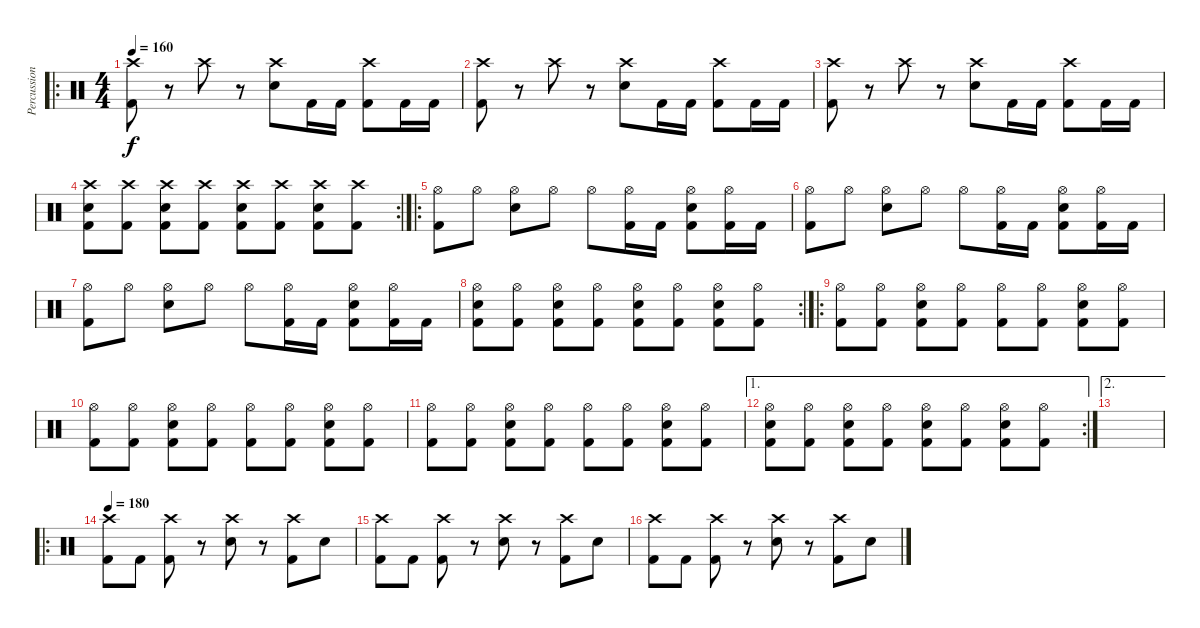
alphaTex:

\track ("Percussion" "Percussion") {instrument percussion}
\staff {score}
\articulation defaults
\ro
\ts (4 4)
\tempo 160
\clef neutral
\ks c
("Crash high (hit)" "Kick (hit) 2").8{dy f} r.8 "Crash high (hit)".8 r.8 ("Crash high (hit)" "Snare (hit) 2").8 "Kick (hit) 2".16 "Kick (hit) 2".16 ("Crash high (hit)" "Kick (hit) 2").8 "Kick (hit) 2".16 "Kick (hit) 2".16 |
("Crash high (hit)" "Kick (hit) 2").8 r.8 "Crash high (hit)".8 r.8 ("Crash high (hit)" "Snare (hit) 2").8 "Kick (hit) 2".16 "Kick (hit) 2".16 ("Crash high (hit)" "Kick (hit) 2").8 "Kick (hit) 2".16 "Kick (hit) 2".16 |
("Crash high (hit)" "Kick (hit) 2").8 r.8 "Crash high (hit)".8 r.8 ("Crash high (hit)" "Snare (hit) 2").8 "Kick (hit) 2".16 "Kick (hit) 2".16 ("Crash high (hit)" "Kick (hit) 2").8 "Kick (hit) 2".16 "Kick (hit) 2".16 |
\rc 2
("Crash high (hit)" "Snare (hit) 2" "Kick (hit) 2").8 ("Crash high (hit)" "Kick (hit) 2").8 ("Crash high (hit)" "Snare (hit) 2" "Kick (hit) 2").8 ("Crash high (hit)" "Kick (hit) 2").8 ("Crash high (hit)" "Snare (hit) 2" "Kick (hit) 2").8 ("Crash high (hit)" "Kick (hit) 2").8 ("Crash high (hit)" "Snare (hit) 2" "Kick (hit) 2").8 ("Crash high (hit)" "Kick (hit) 2").8 |
\ro
("Hi-Hat (open)" "Kick (hit) 2").8 "Hi-Hat (open)".8 ("Hi-Hat (open)" "Snare (hit) 2").8 "Hi-Hat (open)".8 "Hi-Hat (open)".8 ("Hi-Hat (open)" "Kick (hit) 2").16 "Kick (hit) 2".16 ("Hi-Hat (open)" "Snare (hit) 2" "Kick (hit) 2").8 ("Hi-Hat (open)" "Kick (hit) 2").16 "Kick (hit) 2".16 |
("Hi-Hat (open)" "Kick (hit) 2").8 "Hi-Hat (open)".8 ("Hi-Hat (open)" "Snare (hit) 2").8 "Hi-Hat (open)".8 "Hi-Hat (open)".8 ("Hi-Hat (open)" "Kick (hit) 2").16 "Kick (hit) 2".16 ("Hi-Hat (open)" "Snare (hit) 2" "Kick (hit) 2").8 ("Hi-Hat (open)" "Kick (hit) 2").16 "Kick (hit) 2".16 |
("Hi-Hat (open)" "Kick (hit) 2").8 "Hi-Hat (open)".8 ("Hi-Hat (open)" "Snare (hit) 2").8 "Hi-Hat (open)".8 "Hi-Hat (open)".8 ("Hi-Hat (open)" "Kick (hit) 2").16 "Kick (hit) 2".16 ("Hi-Hat (open)" "Snare (hit) 2" "Kick (hit) 2").8 ("Hi-Hat (open)" "Kick (hit) 2").16 "Kick (hit) 2".16 |
\rc 2
("Hi-Hat (open)" "Snare (hit) 2" "Kick (hit) 2").8 ("Hi-Hat (open)" "Kick (hit) 2").8 ("Hi-Hat (open)" "Snare (hit) 2" "Kick (hit) 2").8 ("Hi-Hat (open)" "Kick (hit) 2").8 ("Hi-Hat (open)" "Snare (hit) 2" "Kick (hit) 2").8 ("Hi-Hat (open)" "Kick (hit) 2").8 ("Hi-Hat (open)" "Snare (hit) 2" "Kick (hit) 2").8 ("Hi-Hat (open)" "Kick (hit) 2").8 |
\ro
("Hi-Hat (open)" "Kick (hit) 2").8 ("Hi-Hat (open)" "Kick (hit) 2").8 ("Hi-Hat (open)" "Snare (hit) 2" "Kick (hit) 2").8 ("Hi-Hat (open)" "Kick (hit) 2").8 ("Hi-Hat (open)" "Kick (hit) 2").8 ("Hi-Hat (open)" "Kick (hit) 2").8 ("Hi-Hat (open)" "Snare (hit) 2" "Kick (hit) 2").8 ("Hi-Hat (open)" "Kick (hit) 2").8 |
("Hi-Hat (open)" "Kick (hit) 2").8 ("Hi-Hat (open)" "Kick (hit) 2").8 ("Hi-Hat (open)" "Snare (hit) 2" "Kick (hit) 2").8 ("Hi-Hat (open)" "Kick (hit) 2").8 ("Hi-Hat (open)" "Kick (hit) 2").8 ("Hi-Hat (open)" "Kick (hit) 2").8 ("Hi-Hat (open)" "Snare (hit) 2" "Kick (hit) 2").8 ("Hi-Hat (open)" "Kick (hit) 2").8 |
("Hi-Hat (open)" "Kick (hit) 2").8 ("Hi-Hat (open)" "Kick (hit) 2").8 ("Hi-Hat (open)" "Snare (hit) 2" "Kick (hit) 2").8 ("Hi-Hat (open)" "Kick (hit) 2").8 ("Hi-Hat (open)" "Kick (hit) 2").8 ("Hi-Hat (open)" "Kick (hit) 2").8 ("Hi-Hat (open)" "Snare (hit) 2" "Kick (hit) 2").8 ("Hi-Hat (open)" "Kick (hit) 2").8 |
\ae 1
\rc 2
("Hi-Hat (open)" "Snare (hit) 2" "Kick (hit) 2").8 ("Hi-Hat (open)" "Kick (hit) 2").8 ("Hi-Hat (open)" "Snare (hit) 2" "Kick (hit) 2").8 ("Hi-Hat (open)" "Kick (hit) 2").8 ("Hi-Hat (open)" "Snare (hit) 2" "Kick (hit) 2").8 ("Hi-Hat (open)" "Kick (hit) 2").8 ("Hi-Hat (open)" "Snare (hit) 2" "Kick (hit) 2").8 ("Hi-Hat (open)" "Kick (hit) 2").8 |
\ae 2
|
\ro
\tempo 180
("Crash high (hit)" "Kick (hit) 2").8 "Kick (hit) 2".8 ("Crash high (hit)" "Kick (hit) 2").8 r.8 ("Crash high (hit)" "Snare (hit) 2").8 r.8 ("Crash high (hit)" "Kick (hit) 2").8 "Snare (hit) 2".8 |
("Crash high (hit)" "Kick (hit) 2").8 "Kick (hit) 2".8 ("Crash high (hit)" "Kick (hit) 2").8 r.8 ("Crash high (hit)" "Snare (hit) 2").8 r.8 ("Crash high (hit)" "Kick (hit) 2").8 "Snare (hit) 2".8 |
("Crash high (hit)" "Kick (hit) 2").8 "Kick (hit) 2".8 ("Crash high (hit)" "Kick (hit) 2").8 r.8 ("Crash high (hit)" "Snare (hit) 2").8 r.8 ("Crash high (hit)" "Kick (hit) 2").8 "Snare (hit) 2".8
